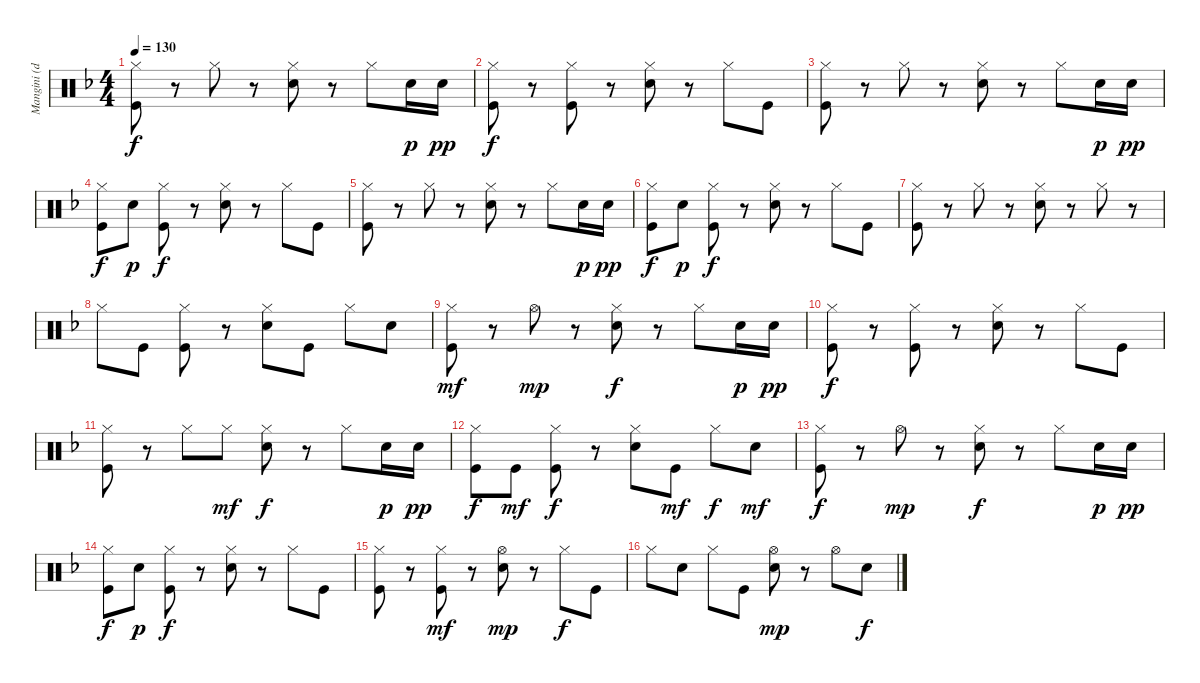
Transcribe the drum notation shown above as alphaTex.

\track ("Mangini (drums)" "Mangini (d") {instrument percussion}
\staff {score}
\articulation defaults
\ts (4 4)
\tempo 130
\clef neutral
\ks dminor
("Hi-Hat (closed)" "Kick (hit)").8{dy f} r.8 "Hi-Hat (closed)".8 r.8 ("Hi-Hat (closed)" "Snare (hit) 2").8 r.8 "Hi-Hat (closed)".8 "Snare (hit) 2".16{dy p} "Snare (hit) 2".16{dy pp} |
("Hi-Hat (closed)" "Kick (hit)").8{dy f} r.8 ("Hi-Hat (closed)" "Kick (hit)").8 r.8 ("Hi-Hat (closed)" "Snare (hit) 2").8 r.8 "Hi-Hat (closed)".8 "Kick (hit)".8 |
("Hi-Hat (closed)" "Kick (hit)").8 r.8 "Hi-Hat (closed)".8 r.8 ("Hi-Hat (closed)" "Snare (hit) 2").8 r.8 "Hi-Hat (closed)".8 "Snare (hit) 2".16{dy p} "Snare (hit) 2".16{dy pp} |
("Hi-Hat (closed)" "Kick (hit)").8{dy f} "Snare (hit) 2".8{dy p} ("Hi-Hat (closed)" "Kick (hit)").8{dy f} r.8 ("Hi-Hat (closed)" "Snare (hit) 2").8 r.8 "Hi-Hat (closed)".8 "Kick (hit)".8 |
("Hi-Hat (closed)" "Kick (hit)").8 r.8 "Hi-Hat (closed)".8 r.8 ("Hi-Hat (closed)" "Snare (hit) 2").8 r.8 "Hi-Hat (closed)".8 "Snare (hit) 2".16{dy p} "Snare (hit) 2".16{dy pp} |
("Hi-Hat (closed)" "Kick (hit)").8{dy f} "Snare (hit) 2".8{dy p} ("Hi-Hat (closed)" "Kick (hit)").8{dy f} r.8 ("Hi-Hat (closed)" "Snare (hit) 2").8 r.8 "Hi-Hat (closed)".8 "Kick (hit)".8 |
("Hi-Hat (closed)" "Kick (hit)").8 r.8 "Hi-Hat (closed)".8 r.8 ("Hi-Hat (closed)" "Snare (hit) 2").8 r.8 "Hi-Hat (closed)".8 r.8 |
"Hi-Hat (closed)".8 "Kick (hit)".8 ("Hi-Hat (closed)" "Kick (hit)").8 r.8 ("Hi-Hat (closed)" "Snare (hit) 2").8 "Kick (hit)".8 "Hi-Hat (closed)".8 "Snare (hit) 2".8 |
("Hi-Hat (closed)" "Kick (hit)").8{dy mf} r.8 "Hi-Hat (open)".8{dy mp} r.8 ("Hi-Hat (closed)" "Snare (hit) 2").8{dy f} r.8 "Hi-Hat (closed)".8 "Snare (hit) 2".16{dy p} "Snare (hit) 2".16{dy pp} |
("Hi-Hat (closed)" "Kick (hit)").8{dy f} r.8 ("Hi-Hat (closed)" "Kick (hit)").8 r.8 ("Hi-Hat (closed)" "Snare (hit) 2").8 r.8 "Hi-Hat (closed)".8 "Kick (hit)".8 |
("Hi-Hat (closed)" "Kick (hit)").8 r.8 "Hi-Hat (closed)".8 "Hi-Hat (closed)".8{dy mf} ("Hi-Hat (closed)" "Snare (hit) 2").8{dy f} r.8 "Hi-Hat (closed)".8 "Snare (hit) 2".16{dy p} "Snare (hit) 2".16{dy pp} |
("Hi-Hat (closed)" "Kick (hit)").8{dy f} "Kick (hit)".8{dy mf} ("Hi-Hat (closed)" "Kick (hit)").8{dy f} r.8 ("Hi-Hat (closed)" "Snare (hit) 2").8 "Kick (hit)".8{dy mf} "Hi-Hat (closed)".8{dy f} "Snare (hit) 2".8{dy mf} |
("Hi-Hat (closed)" "Kick (hit)").8{dy f} r.8 "Hi-Hat (open)".8{dy mp} r.8 ("Hi-Hat (closed)" "Snare (hit) 2").8{dy f} r.8 "Hi-Hat (closed)".8 "Snare (hit) 2".16{dy p} "Snare (hit) 2".16{dy pp} |
("Hi-Hat (closed)" "Kick (hit)").8{dy f} "Snare (hit) 2".8{dy p} ("Hi-Hat (closed)" "Kick (hit)").8{dy f} r.8 ("Hi-Hat (closed)" "Snare (hit) 2").8 r.8 "Hi-Hat (closed)".8 "Kick (hit)".8 |
("Hi-Hat (closed)" "Kick (hit)").8 r.8 ("Hi-Hat (closed)" "Kick (hit)").8{dy mf} r.8 ("Hi-Hat (open)" "Snare (hit) 2").8{dy mp} r.8 "Hi-Hat (closed)".8{dy f} "Kick (hit)".8 |
"Hi-Hat (closed)".8 "Snare (hit) 2".8 "Hi-Hat (closed)".8 "Kick (hit)".8 ("Hi-Hat (open)" "Snare (hit) 2").8{dy mp} r.8 "Hi-Hat (open)".8 "Snare (hit) 2".8{dy f}
